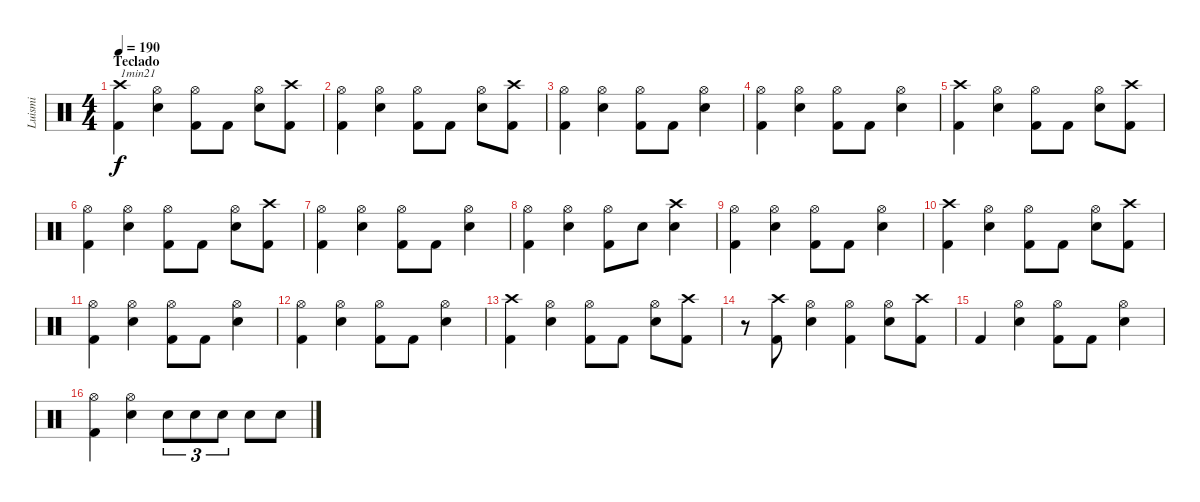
\track ("Luismi" "Luismi") {instrument percussion}
\staff {score}
\articulation defaults
\ts (4 4)
\section ("" "Teclado")
\tempo 190
\clef neutral
\ks c
("Crash high (hit)" "Kick (hit) 2").4{txt "1min21" dy f} ("Hi-Hat (open)" "Electric Snare (hit)").4 ("Hi-Hat (open)" "Kick (hit) 2").8 "Kick (hit) 2".8 ("Hi-Hat (open)" "Electric Snare (hit)").8 ("Crash high (hit)" "Kick (hit) 2").8 |
("Hi-Hat (open)" "Kick (hit) 2").4 ("Hi-Hat (open)" "Electric Snare (hit)").4 ("Hi-Hat (open)" "Kick (hit) 2").8 "Kick (hit) 2".8 ("Hi-Hat (open)" "Electric Snare (hit)").8 ("Crash high (hit)" "Kick (hit) 2").8 |
("Hi-Hat (open)" "Kick (hit) 2").4 ("Hi-Hat (open)" "Electric Snare (hit)").4 ("Hi-Hat (open)" "Kick (hit) 2").8 "Kick (hit) 2".8 ("Hi-Hat (open)" "Electric Snare (hit)").4 |
("Hi-Hat (open)" "Kick (hit) 2").4 ("Hi-Hat (open)" "Electric Snare (hit)").4 ("Hi-Hat (open)" "Kick (hit) 2").8 "Kick (hit) 2".8 ("Hi-Hat (open)" "Electric Snare (hit)").4 |
("Crash high (hit)" "Kick (hit) 2").4 ("Hi-Hat (open)" "Electric Snare (hit)").4 ("Hi-Hat (open)" "Kick (hit) 2").8 "Kick (hit) 2".8 ("Hi-Hat (open)" "Electric Snare (hit)").8 ("Crash high (hit)" "Kick (hit) 2").8 |
("Hi-Hat (open)" "Kick (hit) 2").4 ("Hi-Hat (open)" "Electric Snare (hit)").4 ("Hi-Hat (open)" "Kick (hit) 2").8 "Kick (hit) 2".8 ("Hi-Hat (open)" "Electric Snare (hit)").8 ("Crash high (hit)" "Kick (hit) 2").8 |
("Hi-Hat (open)" "Kick (hit) 2").4 ("Hi-Hat (open)" "Electric Snare (hit)").4 ("Hi-Hat (open)" "Kick (hit) 2").8 "Kick (hit) 2".8 ("Hi-Hat (open)" "Electric Snare (hit)").4 |
("Hi-Hat (open)" "Kick (hit) 2").4 ("Hi-Hat (open)" "Electric Snare (hit)").4 ("Hi-Hat (open)" "Kick (hit) 2").8 "Electric Snare (hit)".8 ("Crash high (hit)" "Electric Snare (hit)").4 |
("Hi-Hat (open)" "Kick (hit) 2").4 ("Hi-Hat (open)" "Electric Snare (hit)").4 ("Hi-Hat (open)" "Kick (hit) 2").8 "Kick (hit) 2".8 ("Hi-Hat (open)" "Electric Snare (hit)").4 |
("Crash high (hit)" "Kick (hit) 2").4 ("Hi-Hat (open)" "Electric Snare (hit)").4 ("Hi-Hat (open)" "Kick (hit) 2").8 "Kick (hit) 2".8 ("Hi-Hat (open)" "Electric Snare (hit)").8 ("Crash high (hit)" "Kick (hit) 2").8 |
("Hi-Hat (open)" "Kick (hit) 2").4 ("Hi-Hat (open)" "Electric Snare (hit)").4 ("Hi-Hat (open)" "Kick (hit) 2").8 "Kick (hit) 2".8 ("Hi-Hat (open)" "Electric Snare (hit)").4 |
("Hi-Hat (open)" "Kick (hit) 2").4 ("Hi-Hat (open)" "Electric Snare (hit)").4 ("Hi-Hat (open)" "Kick (hit) 2").8 "Kick (hit) 2".8 ("Hi-Hat (open)" "Electric Snare (hit)").4 |
("Crash high (hit)" "Kick (hit) 2").4 ("Hi-Hat (open)" "Electric Snare (hit)").4 ("Hi-Hat (open)" "Kick (hit) 2").8 "Kick (hit) 2".8 ("Hi-Hat (open)" "Electric Snare (hit)").8 ("Crash high (hit)" "Kick (hit) 2").8 |
r.8 ("Crash high (hit)" "Kick (hit) 2").8 ("Hi-Hat (open)" "Electric Snare (hit)").4 ("Hi-Hat (open)" "Kick (hit) 2").4 ("Hi-Hat (open)" "Electric Snare (hit)").8 ("Crash high (hit)" "Kick (hit) 2").8 |
"Kick (hit) 2".4 ("Hi-Hat (open)" "Electric Snare (hit)").4 ("Hi-Hat (open)" "Kick (hit) 2").8 "Kick (hit) 2".8 ("Hi-Hat (open)" "Electric Snare (hit)").4 |
("Hi-Hat (open)" "Kick (hit) 2").4 ("Hi-Hat (open)" "Electric Snare (hit)").4 "Electric Snare (hit)".8{tu (3 2)} "Electric Snare (hit)".8{tu (3 2)} "Electric Snare (hit)".8{tu (3 2)} "Electric Snare (hit)".8 "Electric Snare (hit)".8
